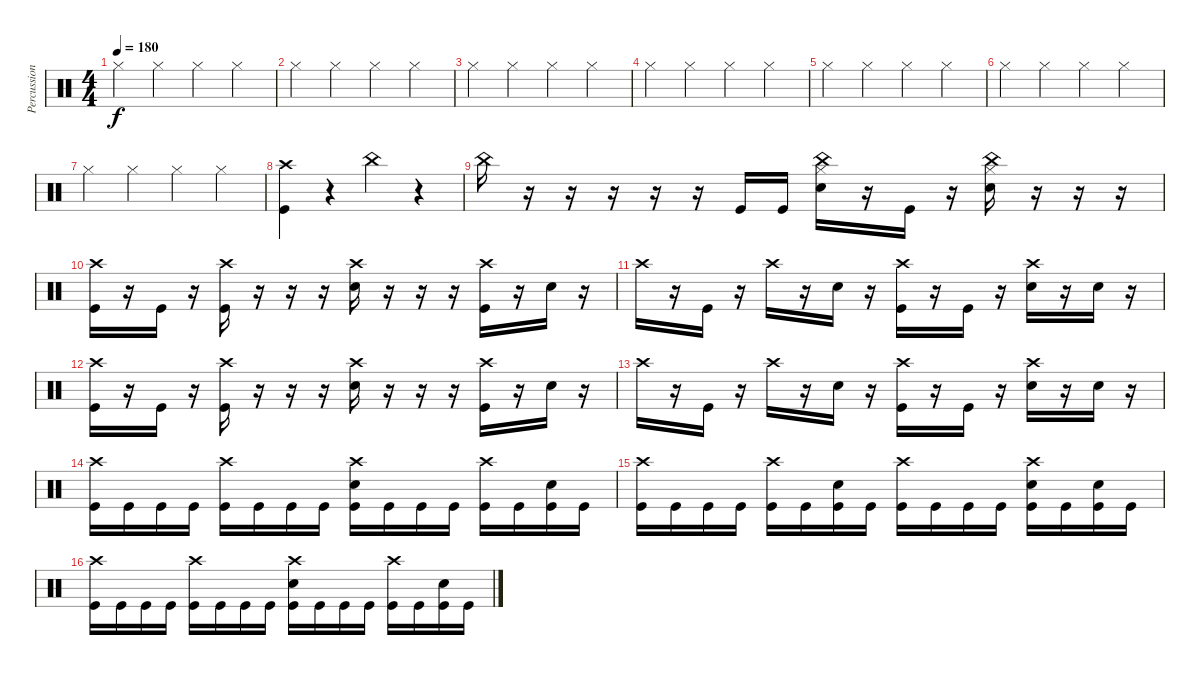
\track ("Percussion" "Percussion") {instrument percussion}
\staff {score}
\articulation defaults
\ts (4 4)
\tempo 180
\clef neutral
\ks c "Hi-Hat (closed)".4{dy f} "Hi-Hat (closed)".4 "Hi-Hat (closed)".4 "Hi-Hat (closed)".4
|
"Hi-Hat (closed)".4 "Hi-Hat (closed)".4 "Hi-Hat (closed)".4 "Hi-Hat (closed)".4 |
"Hi-Hat (closed)".4 "Hi-Hat (closed)".4 "Hi-Hat (closed)".4 "Hi-Hat (closed)".4 |
"Hi-Hat (closed)".4 "Hi-Hat (closed)".4 "Hi-Hat (closed)".4 "Hi-Hat (closed)".4 |
"Hi-Hat (closed)".4 "Hi-Hat (closed)".4 "Hi-Hat (closed)".4 "Hi-Hat (closed)".4 |
"Hi-Hat (closed)".4 "Hi-Hat (closed)".4 "Hi-Hat (closed)".4 "Hi-Hat (closed)".4 |
"Hi-Hat (closed)".4 "Hi-Hat (closed)".4 "Hi-Hat (closed)".4 "Hi-Hat (closed)".4 |
("Crash high (hit)" "Kick (hit)").4 r.4 "China (hit)".4 r.4 |
"China (hit)".16 r.16 r.16 r.16 r.16 r.16 "Kick (hit)".16 "Kick (hit)".16 ("China (hit)" "Hi-Hat (closed)" "Electric Snare (hit)").16 r.16 "Kick (hit)".16 r.16 ("China (hit)" "Hi-Hat (closed)" "Electric Snare (hit)").16 r.16 r.16 r.16 |
("Crash high (hit)" "Kick (hit)").16 r.16 "Kick (hit)".16 r.16 ("Crash high (hit)" "Kick (hit)").16 r.16 r.16 r.16 ("Crash high (hit)" "Electric Snare (hit)").16 r.16 r.16 r.16 ("Crash high (hit)" "Kick (hit)").16 r.16 "Electric Snare (hit)".16 r.16 |
"Crash high (hit)".16 r.16 "Kick (hit)".16 r.16 "Crash high (hit)".16 r.16 "Electric Snare (hit)".16 r.16 ("Crash high (hit)" "Kick (hit)").16 r.16 "Kick (hit)".16 r.16 ("Crash high (hit)" "Electric Snare (hit)").16 r.16 "Electric Snare (hit)".16 r.16 |
("Crash high (hit)" "Kick (hit)").16 r.16 "Kick (hit)".16 r.16 ("Crash high (hit)" "Kick (hit)").16 r.16 r.16 r.16 ("Crash high (hit)" "Electric Snare (hit)").16 r.16 r.16 r.16 ("Crash high (hit)" "Kick (hit)").16 r.16 "Electric Snare (hit)".16 r.16 |
"Crash high (hit)".16 r.16 "Kick (hit)".16 r.16 "Crash high (hit)".16 r.16 "Electric Snare (hit)".16 r.16 ("Crash high (hit)" "Kick (hit)").16 r.16 "Kick (hit)".16 r.16 ("Crash high (hit)" "Electric Snare (hit)").16 r.16 "Electric Snare (hit)".16 r.16 |
("Crash high (hit)" "Kick (hit)").16 "Kick (hit)".16 "Kick (hit)".16 "Kick (hit)".16 ("Crash high (hit)" "Kick (hit)").16 "Kick (hit)".16 "Kick (hit)".16 "Kick (hit)".16 ("Crash high (hit)" "Kick (hit)" "Electric Snare (hit)").16 "Kick (hit)".16 "Kick (hit)".16 "Kick (hit)".16 ("Crash high (hit)" "Kick (hit)").16 "Kick (hit)".16 ("Kick (hit)" "Electric Snare (hit)").16 "Kick (hit)".16 |
("Crash high (hit)" "Kick (hit)").16 "Kick (hit)".16 "Kick (hit)".16 "Kick (hit)".16 ("Crash high (hit)" "Kick (hit)").16 "Kick (hit)".16 ("Kick (hit)" "Electric Snare (hit)").16 "Kick (hit)".16 ("Crash high (hit)" "Kick (hit)").16 "Kick (hit)".16 "Kick (hit)".16 "Kick (hit)".16 ("Crash high (hit)" "Kick (hit)" "Electric Snare (hit)").16 "Kick (hit)".16 ("Kick (hit)" "Electric Snare (hit)").16 "Kick (hit)".16 |
("Crash high (hit)" "Kick (hit)").16 "Kick (hit)".16 "Kick (hit)".16 "Kick (hit)".16 ("Crash high (hit)" "Kick (hit)").16 "Kick (hit)".16 "Kick (hit)".16 "Kick (hit)".16 ("Crash high (hit)" "Kick (hit)" "Electric Snare (hit)").16 "Kick (hit)".16 "Kick (hit)".16 "Kick (hit)".16 ("Crash high (hit)" "Kick (hit)").16 "Kick (hit)".16 ("Kick (hit)" "Electric Snare (hit)").16 "Kick (hit)".16
